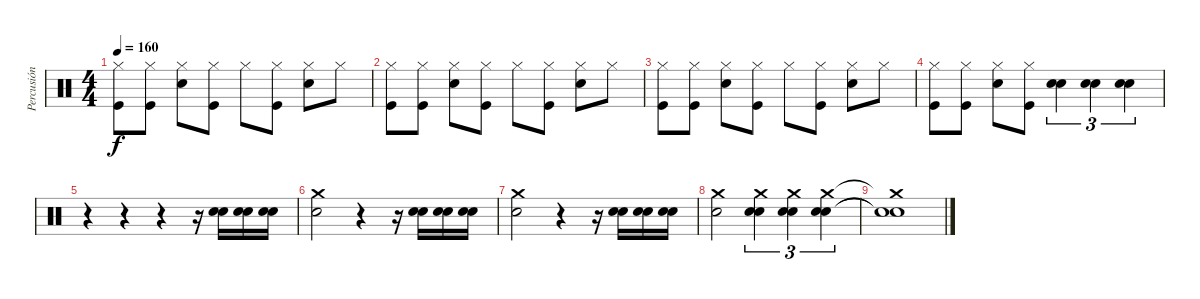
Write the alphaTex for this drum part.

\track ("Percusión" "Percusión") {instrument percussion}
\staff {score}
\articulation defaults
\ts (4 4)
\tempo 160
\clef neutral
\ks c
("Hi-Hat (closed)" "Kick (hit)").8{dy f} ("Hi-Hat (closed)" "Kick (hit)").8 ("Hi-Hat (closed)" "Snare (hit) 2").8 ("Hi-Hat (closed)" "Kick (hit)").8 "Hi-Hat (closed)".8 ("Hi-Hat (closed)" "Kick (hit)").8 ("Hi-Hat (closed)" "Snare (hit) 2").8 "Hi-Hat (closed)".8 |
("Hi-Hat (closed)" "Kick (hit)").8 ("Hi-Hat (closed)" "Kick (hit)").8 ("Hi-Hat (closed)" "Snare (hit) 2").8 ("Hi-Hat (closed)" "Kick (hit)").8 "Hi-Hat (closed)".8 ("Hi-Hat (closed)" "Kick (hit)").8 ("Hi-Hat (closed)" "Snare (hit) 2").8 "Hi-Hat (closed)".8 |
("Hi-Hat (closed)" "Kick (hit)").8 ("Hi-Hat (closed)" "Kick (hit)").8 ("Hi-Hat (closed)" "Snare (hit) 2").8 ("Hi-Hat (closed)" "Kick (hit)").8 "Hi-Hat (closed)".8 ("Hi-Hat (closed)" "Kick (hit)").8 ("Hi-Hat (closed)" "Snare (hit) 2").8 "Hi-Hat (closed)".8 |
("Hi-Hat (closed)" "Kick (hit)").8 ("Hi-Hat (closed)" "Kick (hit)").8 ("Hi-Hat (closed)" "Snare (hit) 2").8 ("Hi-Hat (closed)" "Kick (hit)").8 ("Snare (hit) 2" "Snare (hit) 2").4{tu (3 2)} ("Snare (hit) 2" "Snare (hit) 2").4{tu (3 2)} ("Snare (hit) 2" "Snare (hit) 2").4{tu (3 2)} |
r.4 r.4 r.4 r.16 ("Snare (hit) 2" "Snare (hit) 2").16 ("Snare (hit) 2" "Snare (hit) 2").16 ("Snare (hit) 2" "Snare (hit) 2").16 |
("Snare (hit) 2" "Crash medium (hit)").2 r.4 r.16 ("Snare (hit) 2" "Snare (hit) 2").16 ("Snare (hit) 2" "Snare (hit) 2").16 ("Snare (hit) 2" "Snare (hit) 2").16 |
("Snare (hit) 2" "Crash medium (hit)").2 r.4 r.16 ("Snare (hit) 2" "Snare (hit) 2").16 ("Snare (hit) 2" "Snare (hit) 2").16 ("Snare (hit) 2" "Snare (hit) 2").16 |
("Snare (hit) 2" "Crash medium (hit)").2 ("Snare (hit) 2" "Snare (hit) 2" "Crash medium (hit)").4{tu (3 2)} ("Snare (hit) 2" "Snare (hit) 2" "Crash medium (hit)").4{tu (3 2)} ("Snare (hit) 2" "Snare (hit) 2" "Crash medium (hit)").4{tu (3 2)} |
("Snare (hit) 2"{t} "Snare (hit) 2"{t} "Crash medium (hit)"{t}).1
